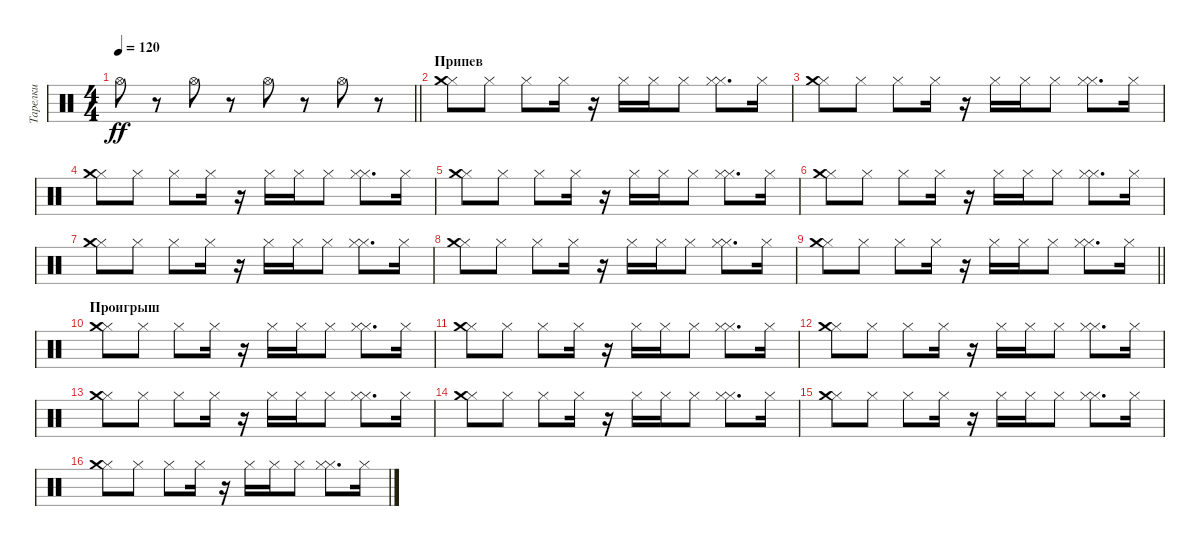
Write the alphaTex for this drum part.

\track ("Тарелки" "Тарелки") {instrument percussion}
\staff {score}
\articulation defaults
\ts (4 4)
\tempo 120
\clef neutral
\barLineRight lightlight
\ks c "Hi-Hat (open)".8{dy ff}
r.8 "Hi-Hat (open)".8 r.8 "Hi-Hat (open)".8 r.8 "Hi-Hat (open)".8 r.8 |
\section ("" "Припев")
("Hi-Hat (closed)" "Crash medium (hit)").8 "Hi-Hat (closed)".8 "Hi-Hat (closed)".8 "Hi-Hat (closed)".16 r.16 "Hi-Hat (closed)".16 "Hi-Hat (closed)".16 "Hi-Hat (closed)".8 ("Hi-Hat (closed)" "Hi-Hat (closed)").8{d} "Hi-Hat (closed)".16 |
("Hi-Hat (closed)" "Crash medium (hit)").8 "Hi-Hat (closed)".8 "Hi-Hat (closed)".8 "Hi-Hat (closed)".16 r.16 "Hi-Hat (closed)".16 "Hi-Hat (closed)".16 "Hi-Hat (closed)".8 ("Hi-Hat (closed)" "Hi-Hat (closed)").8{d} "Hi-Hat (closed)".16 |
("Hi-Hat (closed)" "Crash medium (hit)").8 "Hi-Hat (closed)".8 "Hi-Hat (closed)".8 "Hi-Hat (closed)".16 r.16 "Hi-Hat (closed)".16 "Hi-Hat (closed)".16 "Hi-Hat (closed)".8 ("Hi-Hat (closed)" "Hi-Hat (closed)").8{d} "Hi-Hat (closed)".16 |
("Hi-Hat (closed)" "Crash medium (hit)").8 "Hi-Hat (closed)".8 "Hi-Hat (closed)".8 "Hi-Hat (closed)".16 r.16 "Hi-Hat (closed)".16 "Hi-Hat (closed)".16 "Hi-Hat (closed)".8 ("Hi-Hat (closed)" "Hi-Hat (closed)").8{d} "Hi-Hat (closed)".16 |
("Hi-Hat (closed)" "Crash medium (hit)").8 "Hi-Hat (closed)".8 "Hi-Hat (closed)".8 "Hi-Hat (closed)".16 r.16 "Hi-Hat (closed)".16 "Hi-Hat (closed)".16 "Hi-Hat (closed)".8 ("Hi-Hat (closed)" "Hi-Hat (closed)").8{d} "Hi-Hat (closed)".16 |
("Hi-Hat (closed)" "Crash medium (hit)").8 "Hi-Hat (closed)".8 "Hi-Hat (closed)".8 "Hi-Hat (closed)".16 r.16 "Hi-Hat (closed)".16 "Hi-Hat (closed)".16 "Hi-Hat (closed)".8 ("Hi-Hat (closed)" "Hi-Hat (closed)").8{d} "Hi-Hat (closed)".16 |
("Hi-Hat (closed)" "Crash medium (hit)").8 "Hi-Hat (closed)".8 "Hi-Hat (closed)".8 "Hi-Hat (closed)".16 r.16 "Hi-Hat (closed)".16 "Hi-Hat (closed)".16 "Hi-Hat (closed)".8 ("Hi-Hat (closed)" "Hi-Hat (closed)").8{d} "Hi-Hat (closed)".16 |
\barLineRight lightlight
("Hi-Hat (closed)" "Crash medium (hit)").8 "Hi-Hat (closed)".8 "Hi-Hat (closed)".8 "Hi-Hat (closed)".16 r.16 "Hi-Hat (closed)".16 "Hi-Hat (closed)".16 "Hi-Hat (closed)".8 ("Hi-Hat (closed)" "Hi-Hat (closed)").8{d} "Hi-Hat (closed)".16 |
\section ("" "Проигрыш")
("Hi-Hat (closed)" "Crash medium (hit)").8 "Hi-Hat (closed)".8 "Hi-Hat (closed)".8 "Hi-Hat (closed)".16 r.16 "Hi-Hat (closed)".16 "Hi-Hat (closed)".16 "Hi-Hat (closed)".8 ("Hi-Hat (closed)" "Hi-Hat (closed)").8{d} "Hi-Hat (closed)".16 |
("Hi-Hat (closed)" "Crash medium (hit)").8 "Hi-Hat (closed)".8 "Hi-Hat (closed)".8 "Hi-Hat (closed)".16 r.16 "Hi-Hat (closed)".16 "Hi-Hat (closed)".16 "Hi-Hat (closed)".8 ("Hi-Hat (closed)" "Hi-Hat (closed)").8{d} "Hi-Hat (closed)".16 |
("Hi-Hat (closed)" "Crash medium (hit)").8 "Hi-Hat (closed)".8 "Hi-Hat (closed)".8 "Hi-Hat (closed)".16 r.16 "Hi-Hat (closed)".16 "Hi-Hat (closed)".16 "Hi-Hat (closed)".8 ("Hi-Hat (closed)" "Hi-Hat (closed)").8{d} "Hi-Hat (closed)".16 |
("Hi-Hat (closed)" "Crash medium (hit)").8 "Hi-Hat (closed)".8 "Hi-Hat (closed)".8 "Hi-Hat (closed)".16 r.16 "Hi-Hat (closed)".16 "Hi-Hat (closed)".16 "Hi-Hat (closed)".8 ("Hi-Hat (closed)" "Hi-Hat (closed)").8{d} "Hi-Hat (closed)".16 |
("Hi-Hat (closed)" "Crash medium (hit)").8 "Hi-Hat (closed)".8 "Hi-Hat (closed)".8 "Hi-Hat (closed)".16 r.16 "Hi-Hat (closed)".16 "Hi-Hat (closed)".16 "Hi-Hat (closed)".8 ("Hi-Hat (closed)" "Hi-Hat (closed)").8{d} "Hi-Hat (closed)".16 |
("Hi-Hat (closed)" "Crash medium (hit)").8 "Hi-Hat (closed)".8 "Hi-Hat (closed)".8 "Hi-Hat (closed)".16 r.16 "Hi-Hat (closed)".16 "Hi-Hat (closed)".16 "Hi-Hat (closed)".8 ("Hi-Hat (closed)" "Hi-Hat (closed)").8{d} "Hi-Hat (closed)".16 |
("Hi-Hat (closed)" "Crash medium (hit)").8 "Hi-Hat (closed)".8 "Hi-Hat (closed)".8 "Hi-Hat (closed)".16 r.16 "Hi-Hat (closed)".16 "Hi-Hat (closed)".16 "Hi-Hat (closed)".8 ("Hi-Hat (closed)" "Hi-Hat (closed)").8{d} "Hi-Hat (closed)".16
